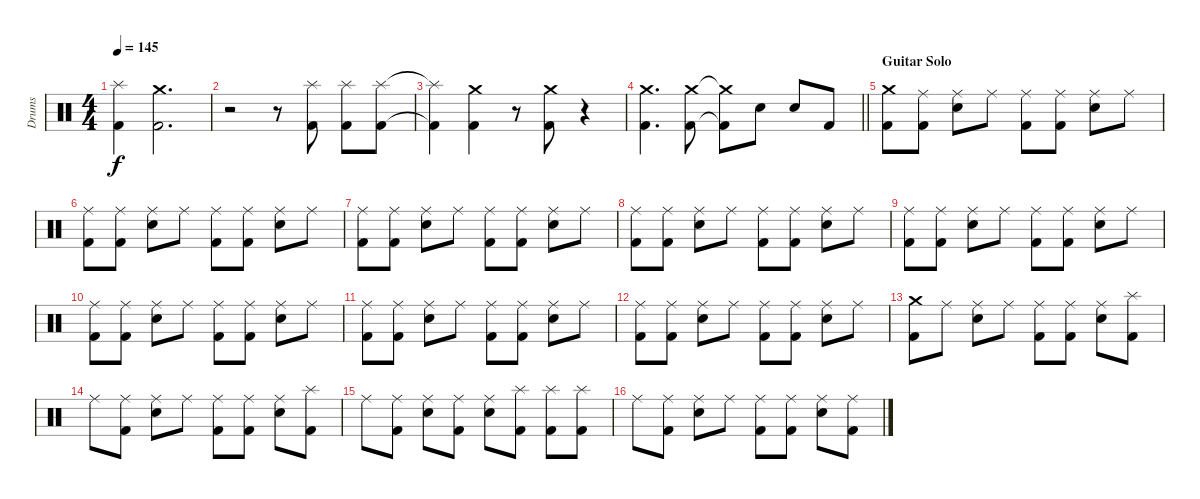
\track ("Drums" "Drums") {instrument percussion}
\staff {score}
\articulation defaults
\ts (4 4)
\tempo 145
\clef neutral
\ks c
("Splash (hit)"{t} "Kick (hit) 2"{t}).4{dy f} ("Crash medium (hit)" "Kick (hit) 2").2{d} |
r.2 r.8 ("Splash (hit)" "Kick (hit) 2").8 ("Splash (hit)" "Kick (hit) 2").8 ("Splash (hit)" "Kick (hit) 2").8 |
("Splash (hit)"{t} "Kick (hit) 2"{t}).4 ("Crash medium (hit)" "Kick (hit) 2").4 r.8 ("Crash medium (hit)" "Kick (hit) 2").8 r.4 |
\barLineRight lightlight
("Crash medium (hit)" "Kick (hit) 2").4{d} ("Crash medium (hit)" "Kick (hit) 2").8 ("Crash medium (hit)"{t} "Kick (hit) 2"{t}).8 "Snare (hit) 2".8 "Snare (hit) 2".8 "Kick (hit) 2".8 |
\section ("" "Guitar Solo")
("Crash medium (hit)" "Kick (hit) 2").8 ("Ride (middle)" "Kick (hit) 2").8 ("Ride (middle)" "Snare (hit) 2").8 "Ride (middle)".8 ("Ride (middle)" "Kick (hit) 2").8 ("Ride (middle)" "Kick (hit) 2").8 ("Ride (middle)" "Snare (hit) 2").8 "Ride (middle)".8 |
("Ride (middle)" "Kick (hit) 2").8 ("Ride (middle)" "Kick (hit) 2").8 ("Ride (middle)" "Snare (hit) 2").8 "Ride (middle)".8 ("Ride (middle)" "Kick (hit) 2").8 ("Ride (middle)" "Kick (hit) 2").8 ("Ride (middle)" "Snare (hit) 2").8 "Ride (middle)".8 |
("Ride (middle)" "Kick (hit) 2").8 ("Ride (middle)" "Kick (hit) 2").8 ("Ride (middle)" "Snare (hit) 2").8 "Ride (middle)".8 ("Ride (middle)" "Kick (hit) 2").8 ("Ride (middle)" "Kick (hit) 2").8 ("Ride (middle)" "Snare (hit) 2").8 "Ride (middle)".8 |
("Ride (middle)" "Kick (hit) 2").8 ("Ride (middle)" "Kick (hit) 2").8 ("Ride (middle)" "Snare (hit) 2").8 "Ride (middle)".8 ("Ride (middle)" "Kick (hit) 2").8 ("Ride (middle)" "Kick (hit) 2").8 ("Ride (middle)" "Snare (hit) 2").8 "Ride (middle)".8 |
("Ride (middle)" "Kick (hit) 2").8 ("Ride (middle)" "Kick (hit) 2").8 ("Ride (middle)" "Snare (hit) 2").8 "Ride (middle)".8 ("Ride (middle)" "Kick (hit) 2").8 ("Ride (middle)" "Kick (hit) 2").8 ("Ride (middle)" "Snare (hit) 2").8 "Ride (middle)".8 |
("Ride (middle)" "Kick (hit) 2").8 ("Ride (middle)" "Kick (hit) 2").8 ("Ride (middle)" "Snare (hit) 2").8 "Ride (middle)".8 ("Ride (middle)" "Kick (hit) 2").8 ("Ride (middle)" "Kick (hit) 2").8 ("Ride (middle)" "Snare (hit) 2").8 "Ride (middle)".8 |
("Ride (middle)" "Kick (hit) 2").8 ("Ride (middle)" "Kick (hit) 2").8 ("Ride (middle)" "Snare (hit) 2").8 "Ride (middle)".8 ("Ride (middle)" "Kick (hit) 2").8 ("Ride (middle)" "Kick (hit) 2").8 ("Ride (middle)" "Snare (hit) 2").8 "Ride (middle)".8 |
("Ride (middle)" "Kick (hit) 2").8 ("Ride (middle)" "Kick (hit) 2").8 ("Ride (middle)" "Snare (hit) 2").8 "Ride (middle)".8 ("Ride (middle)" "Kick (hit) 2").8 ("Ride (middle)" "Kick (hit) 2").8 ("Ride (middle)" "Snare (hit) 2").8 "Ride (middle)".8 |
("Crash medium (hit)" "Kick (hit) 2").8 "Ride (middle)".8 ("Ride (middle)" "Snare (hit) 2").8 "Ride (middle)".8 ("Ride (middle)" "Kick (hit) 2").8 ("Ride (middle)" "Kick (hit) 2").8 ("Ride (middle)" "Snare (hit) 2").8 ("Splash (hit)" "Kick (hit) 2").8 |
"Ride (middle)".8 ("Ride (middle)" "Kick (hit) 2").8 ("Ride (middle)" "Snare (hit) 2").8 "Ride (middle)".8 ("Ride (middle)" "Kick (hit) 2").8 ("Ride (middle)" "Kick (hit) 2").8 ("Ride (middle)" "Snare (hit) 2").8 ("Splash (hit)" "Kick (hit) 2").8 |
"Ride (middle)".8 ("Ride (middle)" "Kick (hit) 2").8 ("Ride (middle)" "Snare (hit) 2").8 ("Ride (middle)" "Kick (hit) 2").8 ("Ride (middle)" "Snare (hit) 2").8 ("Splash (hit)" "Kick (hit) 2").8 ("Splash (hit)" "Kick (hit) 2").8 ("Splash (hit)" "Kick (hit) 2").8 |
"Ride (middle)".8 ("Ride (middle)" "Kick (hit) 2").8 ("Ride (middle)" "Snare (hit) 2").8 "Ride (middle)".8 ("Ride (middle)" "Kick (hit) 2").8 ("Ride (middle)" "Kick (hit) 2").8 ("Ride (middle)" "Snare (hit) 2").8 ("Ride (middle)" "Kick (hit) 2").8
